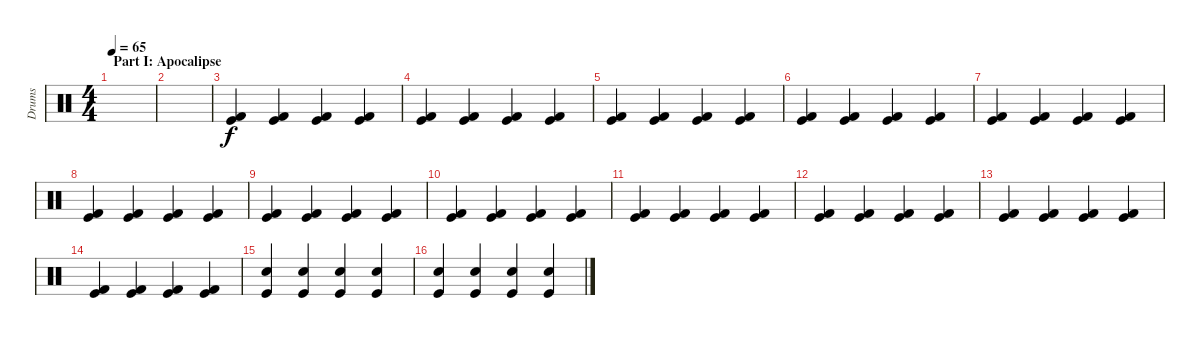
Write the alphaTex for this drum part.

\track ("Drums" "Drums") {instrument percussion}
\staff {score}
\articulation defaults
\ts (4 4)
\section ("" "Part I: Apocalipse")
\tempo 65
\clef neutral
\ks c
|
|
("Kick (hit)" "Kick (hit) 2").4 ("Kick (hit)" "Kick (hit) 2").4 ("Kick (hit)" "Kick (hit) 2").4 ("Kick (hit)" "Kick (hit) 2").4 |
("Kick (hit)" "Kick (hit) 2").4 ("Kick (hit)" "Kick (hit) 2").4 ("Kick (hit)" "Kick (hit) 2").4 ("Kick (hit)" "Kick (hit) 2").4 |
("Kick (hit)" "Kick (hit) 2").4 ("Kick (hit)" "Kick (hit) 2").4 ("Kick (hit)" "Kick (hit) 2").4 ("Kick (hit)" "Kick (hit) 2").4 |
("Kick (hit)" "Kick (hit) 2").4 ("Kick (hit)" "Kick (hit) 2").4 ("Kick (hit)" "Kick (hit) 2").4 ("Kick (hit)" "Kick (hit) 2").4 |
("Kick (hit)" "Kick (hit) 2").4 ("Kick (hit)" "Kick (hit) 2").4 ("Kick (hit)" "Kick (hit) 2").4 ("Kick (hit)" "Kick (hit) 2").4 |
("Kick (hit)" "Kick (hit) 2").4 ("Kick (hit)" "Kick (hit) 2").4 ("Kick (hit)" "Kick (hit) 2").4 ("Kick (hit)" "Kick (hit) 2").4 |
("Kick (hit)" "Kick (hit) 2").4 ("Kick (hit)" "Kick (hit) 2").4 ("Kick (hit)" "Kick (hit) 2").4 ("Kick (hit)" "Kick (hit) 2").4 |
("Kick (hit)" "Kick (hit) 2").4 ("Kick (hit)" "Kick (hit) 2").4 ("Kick (hit)" "Kick (hit) 2").4 ("Kick (hit)" "Kick (hit) 2").4 |
("Kick (hit)" "Kick (hit) 2").4 ("Kick (hit)" "Kick (hit) 2").4 ("Kick (hit)" "Kick (hit) 2").4 ("Kick (hit)" "Kick (hit) 2").4 |
("Kick (hit)" "Kick (hit) 2").4 ("Kick (hit)" "Kick (hit) 2").4 ("Kick (hit)" "Kick (hit) 2").4 ("Kick (hit)" "Kick (hit) 2").4 |
("Kick (hit)" "Kick (hit) 2").4 ("Kick (hit)" "Kick (hit) 2").4 ("Kick (hit)" "Kick (hit) 2").4 ("Kick (hit)" "Kick (hit) 2").4 |
("Kick (hit)" "Kick (hit) 2").4 ("Kick (hit)" "Kick (hit) 2").4 ("Kick (hit)" "Kick (hit) 2").4 ("Kick (hit)" "Kick (hit) 2").4 |
("Kick (hit)" "Snare (hit) 2").4 ("Kick (hit)" "Snare (hit) 2").4 ("Kick (hit)" "Snare (hit) 2").4 ("Kick (hit)" "Snare (hit) 2").4 |
("Kick (hit)" "Snare (hit) 2").4 ("Kick (hit)" "Snare (hit) 2").4 ("Kick (hit)" "Snare (hit) 2").4 ("Kick (hit)" "Snare (hit) 2").4
